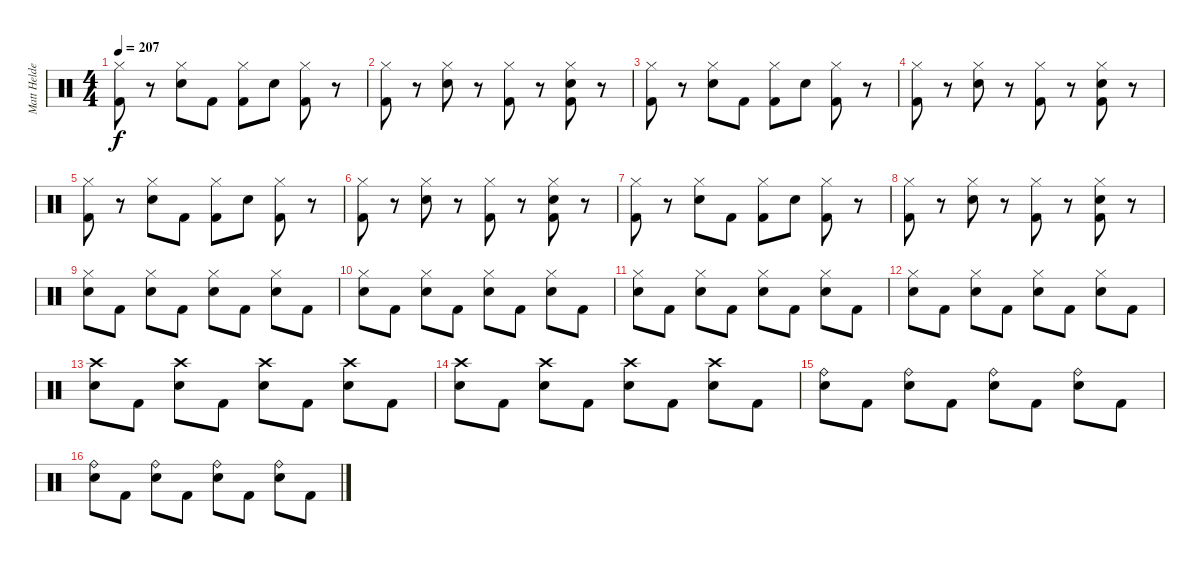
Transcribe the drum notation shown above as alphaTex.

\track ("Matt Helders - Drums" "Matt Helde") {instrument percussion}
\staff {score}
\articulation defaults
\ts (4 4)
\tempo 207
\clef neutral
\ks c
("Hi-Hat (closed)" "Kick (hit) 2").8{dy f} r.8 ("Hi-Hat (closed)" "Electric Snare (hit)").8 "Kick (hit) 2".8 ("Hi-Hat (closed)" "Kick (hit) 2").8 "Electric Snare (hit)".8 ("Hi-Hat (closed)" "Kick (hit) 2").8 r.8 |
("Hi-Hat (closed)" "Kick (hit) 2").8 r.8 ("Hi-Hat (closed)" "Electric Snare (hit)").8 r.8 ("Hi-Hat (closed)" "Kick (hit) 2").8 r.8 ("Hi-Hat (closed)" "Electric Snare (hit)" "Kick (hit) 2").8 r.8 |
("Hi-Hat (closed)" "Kick (hit) 2").8 r.8 ("Hi-Hat (closed)" "Electric Snare (hit)").8 "Kick (hit) 2".8 ("Hi-Hat (closed)" "Kick (hit) 2").8 "Electric Snare (hit)".8 ("Hi-Hat (closed)" "Kick (hit) 2").8 r.8 |
("Hi-Hat (closed)" "Kick (hit) 2").8 r.8 ("Hi-Hat (closed)" "Electric Snare (hit)").8 r.8 ("Hi-Hat (closed)" "Kick (hit) 2").8 r.8 ("Hi-Hat (closed)" "Electric Snare (hit)" "Kick (hit) 2").8 r.8 |
("Hi-Hat (closed)" "Kick (hit) 2").8 r.8 ("Hi-Hat (closed)" "Electric Snare (hit)").8 "Kick (hit) 2".8 ("Hi-Hat (closed)" "Kick (hit) 2").8 "Electric Snare (hit)".8 ("Hi-Hat (closed)" "Kick (hit) 2").8 r.8 |
("Hi-Hat (closed)" "Kick (hit) 2").8 r.8 ("Hi-Hat (closed)" "Electric Snare (hit)").8 r.8 ("Hi-Hat (closed)" "Kick (hit) 2").8 r.8 ("Hi-Hat (closed)" "Electric Snare (hit)" "Kick (hit) 2").8 r.8 |
("Hi-Hat (closed)" "Kick (hit) 2").8 r.8 ("Hi-Hat (closed)" "Electric Snare (hit)").8 "Kick (hit) 2".8 ("Hi-Hat (closed)" "Kick (hit) 2").8 "Electric Snare (hit)".8 ("Hi-Hat (closed)" "Kick (hit) 2").8 r.8 |
("Hi-Hat (closed)" "Kick (hit) 2").8 r.8 ("Hi-Hat (closed)" "Electric Snare (hit)").8 r.8 ("Hi-Hat (closed)" "Kick (hit) 2").8 r.8 ("Hi-Hat (closed)" "Electric Snare (hit)" "Kick (hit) 2").8 r.8 |
("Hi-Hat (closed)" "Electric Snare (hit)").8 "Kick (hit) 2".8 ("Hi-Hat (closed)" "Electric Snare (hit)").8 "Kick (hit) 2".8 ("Hi-Hat (closed)" "Electric Snare (hit)").8 "Kick (hit) 2".8 ("Hi-Hat (closed)" "Electric Snare (hit)").8 "Kick (hit) 2".8 |
("Hi-Hat (closed)" "Electric Snare (hit)").8 "Kick (hit) 2".8 ("Hi-Hat (closed)" "Electric Snare (hit)").8 "Kick (hit) 2".8 ("Hi-Hat (closed)" "Electric Snare (hit)").8 "Kick (hit) 2".8 ("Hi-Hat (closed)" "Electric Snare (hit)").8 "Kick (hit) 2".8 |
("Hi-Hat (closed)" "Electric Snare (hit)").8 "Kick (hit) 2".8 ("Hi-Hat (closed)" "Electric Snare (hit)").8 "Kick (hit) 2".8 ("Hi-Hat (closed)" "Electric Snare (hit)").8 "Kick (hit) 2".8 ("Hi-Hat (closed)" "Electric Snare (hit)").8 "Kick (hit) 2".8 |
("Hi-Hat (closed)" "Electric Snare (hit)").8 "Kick (hit) 2".8 ("Hi-Hat (closed)" "Electric Snare (hit)").8 "Kick (hit) 2".8 ("Hi-Hat (closed)" "Electric Snare (hit)").8 "Kick (hit) 2".8 ("Hi-Hat (closed)" "Electric Snare (hit)").8 "Kick (hit) 2".8 |
("Crash high (hit)" "Electric Snare (hit)").8 "Kick (hit) 2".8 ("Crash high (hit)" "Electric Snare (hit)").8 "Kick (hit) 2".8 ("Crash high (hit)" "Electric Snare (hit)").8 "Kick (hit) 2".8 ("Crash high (hit)" "Electric Snare (hit)").8 "Kick (hit) 2".8 |
("Crash high (hit)" "Electric Snare (hit)").8 "Kick (hit) 2".8 ("Crash high (hit)" "Electric Snare (hit)").8 "Kick (hit) 2".8 ("Crash high (hit)" "Electric Snare (hit)").8 "Kick (hit) 2".8 ("Crash high (hit)" "Electric Snare (hit)").8 "Kick (hit) 2".8 |
("Ride (bell)" "Electric Snare (hit)").8 "Kick (hit) 2".8 ("Ride (bell)" "Electric Snare (hit)").8 "Kick (hit) 2".8 ("Ride (bell)" "Electric Snare (hit)").8 "Kick (hit) 2".8 ("Ride (bell)" "Electric Snare (hit)").8 "Kick (hit) 2".8 |
("Ride (bell)" "Electric Snare (hit)").8 "Kick (hit) 2".8 ("Ride (bell)" "Electric Snare (hit)").8 "Kick (hit) 2".8 ("Ride (bell)" "Electric Snare (hit)").8 "Kick (hit) 2".8 ("Ride (bell)" "Electric Snare (hit)").8 "Kick (hit) 2".8
